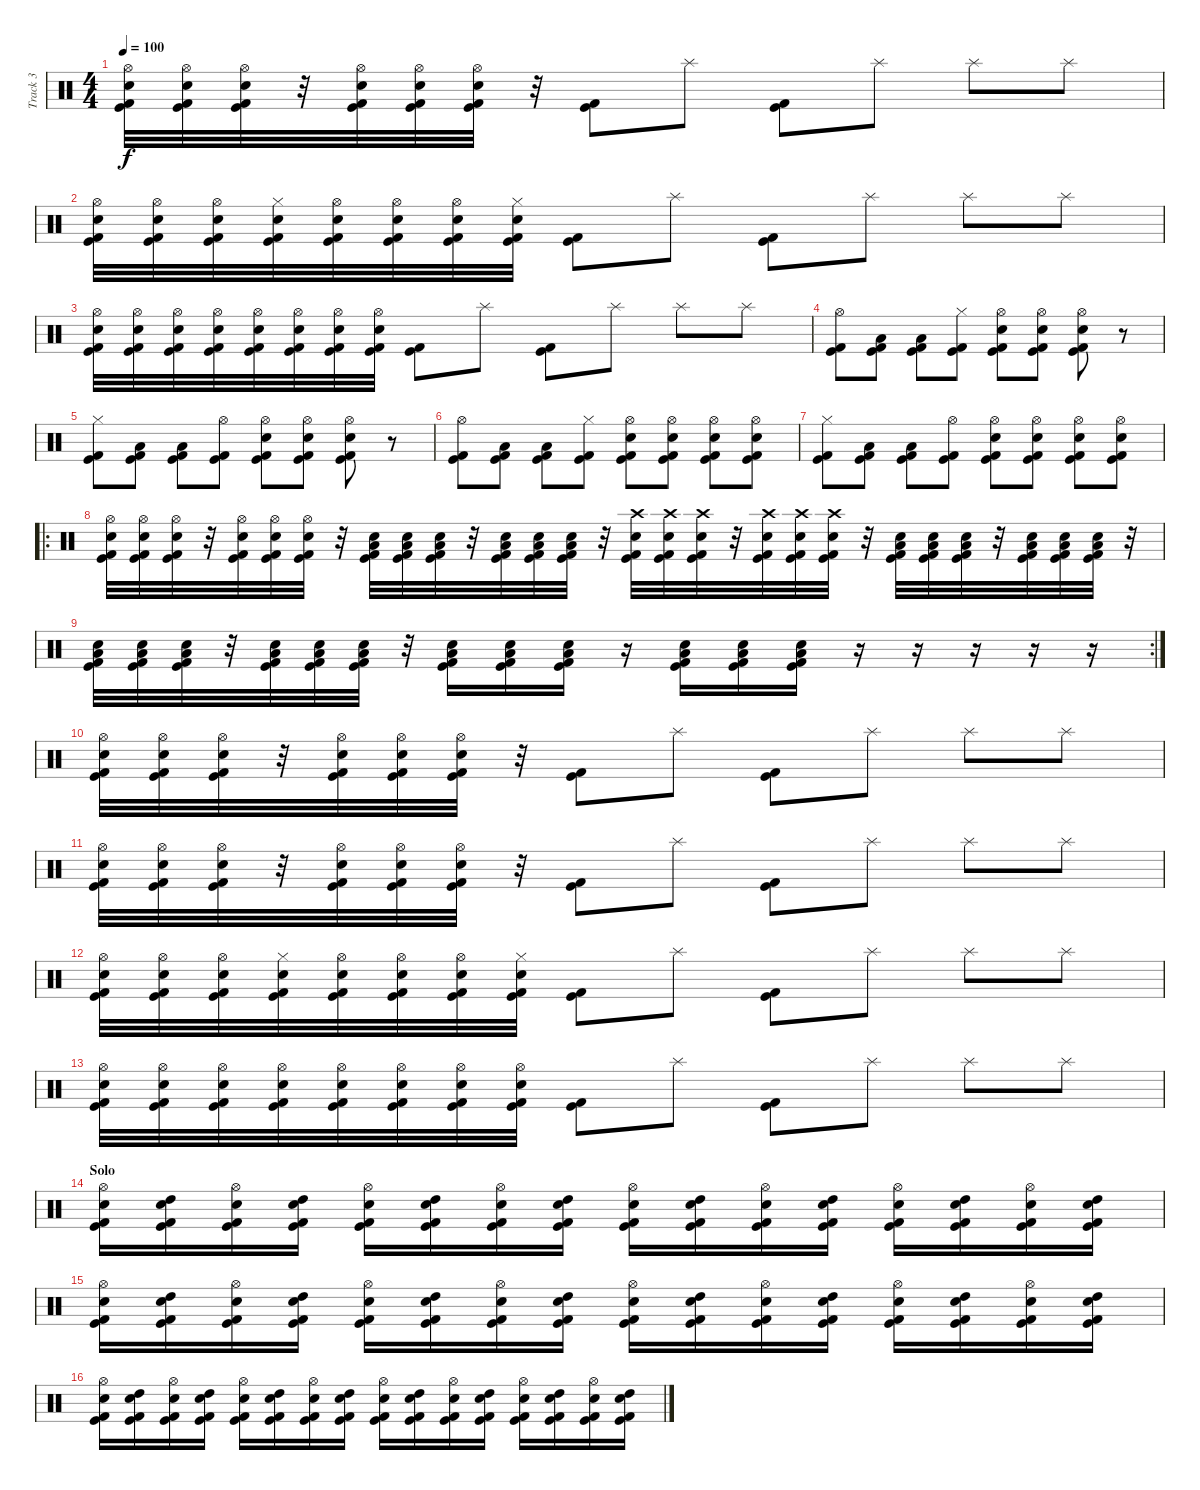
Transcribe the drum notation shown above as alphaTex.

\track ("Track 3" "Track 3") {instrument percussion}
\staff {score}
\articulation defaults
\ts (4 4)
\tempo 100
\clef neutral
\ks c
("Hi-Hat (open)" "Snare (hit) 2" "Kick (hit) 2" "Kick (hit)").32{dy f} ("Hi-Hat (open)" "Snare (hit) 2" "Kick (hit) 2" "Kick (hit)").32 ("Hi-Hat (open)" "Snare (hit) 2" "Kick (hit) 2" "Kick (hit)").32 r.32 ("Hi-Hat (open)" "Snare (hit) 2" "Kick (hit) 2" "Kick (hit)").32 ("Hi-Hat (open)" "Snare (hit) 2" "Kick (hit) 2" "Kick (hit)").32 ("Hi-Hat (open)" "Snare (hit) 2" "Kick (hit) 2" "Kick (hit)").32 r.32 ("Kick (hit) 2" "Kick (hit)").8 "Splash (hit)".8 ("Kick (hit) 2" "Kick (hit)").8 "Splash (hit)".8 "Splash (hit)".8 "Splash (hit)".8 |
("Hi-Hat (open)" "Snare (hit) 2" "Kick (hit) 2" "Kick (hit)").32 ("Hi-Hat (open)" "Snare (hit) 2" "Kick (hit) 2" "Kick (hit)").32 ("Hi-Hat (open)" "Snare (hit) 2" "Kick (hit) 2" "Kick (hit)").32 ("Hi-Hat (closed)" "Snare (hit) 2" "Kick (hit) 2" "Kick (hit)").32 ("Hi-Hat (open)" "Snare (hit) 2" "Kick (hit) 2" "Kick (hit)").32 ("Hi-Hat (open)" "Snare (hit) 2" "Kick (hit) 2" "Kick (hit)").32 ("Hi-Hat (open)" "Snare (hit) 2" "Kick (hit) 2" "Kick (hit)").32 ("Hi-Hat (closed)" "Snare (hit) 2" "Kick (hit) 2" "Kick (hit)").32 ("Kick (hit) 2" "Kick (hit)").8 "Splash (hit)".8 ("Kick (hit) 2" "Kick (hit)").8 "Splash (hit)".8 "Splash (hit)".8 "Splash (hit)".8 |
("Hi-Hat (open)" "Snare (hit) 2" "Kick (hit) 2" "Kick (hit)").32 ("Hi-Hat (open)" "Snare (hit) 2" "Kick (hit) 2" "Kick (hit)").32 ("Hi-Hat (open)" "Snare (hit) 2" "Kick (hit) 2" "Kick (hit)").32 ("Hi-Hat (open)" "Snare (hit) 2" "Kick (hit) 2" "Kick (hit)").32 ("Hi-Hat (open)" "Snare (hit) 2" "Kick (hit) 2" "Kick (hit)").32 ("Hi-Hat (open)" "Snare (hit) 2" "Kick (hit) 2" "Kick (hit)").32 ("Hi-Hat (open)" "Snare (hit) 2" "Kick (hit) 2" "Kick (hit)").32 ("Hi-Hat (open)" "Snare (hit) 2" "Kick (hit) 2" "Kick (hit)").32 ("Kick (hit) 2" "Kick (hit)").8 "Splash (hit)".8 ("Kick (hit) 2" "Kick (hit)").8 "Splash (hit)".8 "Splash (hit)".8 "Splash (hit)".8 |
("Hi-Hat (open)" "Kick (hit) 2" "Kick (hit)").8 ("Low Tom (hit)" "Kick (hit) 2" "Kick (hit)").8 ("Low Tom (hit)" "Kick (hit) 2" "Kick (hit)").8 ("Hi-Hat (closed)" "Kick (hit) 2" "Kick (hit)").8 ("Hi-Hat (open)" "Snare (hit) 2" "Kick (hit) 2" "Kick (hit)").8 ("Hi-Hat (open)" "Snare (hit) 2" "Kick (hit) 2" "Kick (hit)").8 ("Hi-Hat (open)" "Snare (hit) 2" "Kick (hit) 2" "Kick (hit)").8 r.8 |
("Hi-Hat (closed)" "Kick (hit) 2" "Kick (hit)").8 ("Low Tom (hit)" "Kick (hit) 2" "Kick (hit)").8 ("Low Tom (hit)" "Kick (hit) 2" "Kick (hit)").8 ("Hi-Hat (open)" "Kick (hit) 2" "Kick (hit)").8 ("Hi-Hat (open)" "Snare (hit) 2" "Kick (hit) 2" "Kick (hit)").8 ("Hi-Hat (open)" "Snare (hit) 2" "Kick (hit) 2" "Kick (hit)").8 ("Hi-Hat (open)" "Snare (hit) 2" "Kick (hit) 2" "Kick (hit)").8 r.8 |
("Hi-Hat (open)" "Kick (hit) 2" "Kick (hit)").8 ("Low Tom (hit)" "Kick (hit) 2" "Kick (hit)").8 ("Low Tom (hit)" "Kick (hit) 2" "Kick (hit)").8 ("Hi-Hat (closed)" "Kick (hit) 2" "Kick (hit)").8 ("Hi-Hat (open)" "Snare (hit) 2" "Kick (hit) 2" "Kick (hit)").8 ("Hi-Hat (open)" "Snare (hit) 2" "Kick (hit) 2" "Kick (hit)").8 ("Hi-Hat (open)" "Snare (hit) 2" "Kick (hit) 2" "Kick (hit)").8 ("Hi-Hat (open)" "Snare (hit) 2" "Kick (hit) 2" "Kick (hit)").8 |
("Hi-Hat (closed)" "Kick (hit) 2" "Kick (hit)").8 ("Low Tom (hit)" "Kick (hit) 2" "Kick (hit)").8 ("Low Tom (hit)" "Kick (hit) 2" "Kick (hit)").8 ("Hi-Hat (open)" "Kick (hit) 2" "Kick (hit)").8 ("Hi-Hat (open)" "Snare (hit) 2" "Kick (hit) 2" "Kick (hit)").8 ("Hi-Hat (open)" "Snare (hit) 2" "Kick (hit) 2" "Kick (hit)").8 ("Hi-Hat (open)" "Snare (hit) 2" "Kick (hit) 2" "Kick (hit)").8 ("Hi-Hat (open)" "Snare (hit) 2" "Kick (hit) 2" "Kick (hit)").8 |
\ro
("Hi-Hat (open)" "Snare (hit) 2" "Kick (hit) 2" "Kick (hit)").32 ("Hi-Hat (open)" "Snare (hit) 2" "Kick (hit) 2" "Kick (hit)").32 ("Hi-Hat (open)" "Snare (hit) 2" "Kick (hit) 2" "Kick (hit)").32 r.32 ("Hi-Hat (open)" "Snare (hit) 2" "Kick (hit) 2" "Kick (hit)").32 ("Hi-Hat (open)" "Snare (hit) 2" "Kick (hit) 2" "Kick (hit)").32 ("Hi-Hat (open)" "Snare (hit) 2" "Kick (hit) 2" "Kick (hit)").32 r.32 ("Low Tom (hit)" "Snare (hit) 2" "Kick (hit) 2" "Kick (hit)").32 ("Low Tom (hit)" "Snare (hit) 2" "Kick (hit) 2" "Kick (hit)").32 ("Low Tom (hit)" "Snare (hit) 2" "Kick (hit) 2" "Kick (hit)").32 r.32 ("Low Tom (hit)" "Snare (hit) 2" "Kick (hit) 2" "Kick (hit)").32 ("Low Tom (hit)" "Snare (hit) 2" "Kick (hit) 2" "Kick (hit)").32 ("Low Tom (hit)" "Snare (hit) 2" "Kick (hit) 2" "Kick (hit)").32 r.32 ("Crash high (hit)" "Snare (hit) 2" "Kick (hit) 2" "Kick (hit)").32 ("Crash high (hit)" "Snare (hit) 2" "Kick (hit) 2" "Kick (hit)").32 ("Crash high (hit)" "Snare (hit) 2" "Kick (hit) 2" "Kick (hit)").32 r.32 ("Crash high (hit)" "Snare (hit) 2" "Kick (hit) 2" "Kick (hit)").32 ("Crash high (hit)" "Snare (hit) 2" "Kick (hit) 2" "Kick (hit)").32 ("Crash high (hit)" "Snare (hit) 2" "Kick (hit) 2" "Kick (hit)").32 r.32 ("Low Tom (hit)" "Snare (hit) 2" "Kick (hit) 2" "Kick (hit)").32 ("Low Tom (hit)" "Snare (hit) 2" "Kick (hit) 2" "Kick (hit)").32 ("Low Tom (hit)" "Snare (hit) 2" "Kick (hit) 2" "Kick (hit)").32 r.32 ("Low Tom (hit)" "Snare (hit) 2" "Kick (hit) 2" "Kick (hit)").32 ("Low Tom (hit)" "Snare (hit) 2" "Kick (hit) 2" "Kick (hit)").32 ("Low Tom (hit)" "Snare (hit) 2" "Kick (hit) 2" "Kick (hit)").32 r.32 |
\rc 2
("Low Tom (hit)" "Snare (hit) 2" "Kick (hit) 2" "Kick (hit)").32 ("Low Tom (hit)" "Snare (hit) 2" "Kick (hit) 2" "Kick (hit)").32 ("Low Tom (hit)" "Snare (hit) 2" "Kick (hit) 2" "Kick (hit)").32 r.32 ("Low Tom (hit)" "Snare (hit) 2" "Kick (hit) 2" "Kick (hit)").32 ("Low Tom (hit)" "Snare (hit) 2" "Kick (hit) 2" "Kick (hit)").32 ("Low Tom (hit)" "Snare (hit) 2" "Kick (hit) 2" "Kick (hit)").32 r.32 ("Low Tom (hit)" "Snare (hit) 2" "Kick (hit) 2" "Kick (hit)").16 ("Low Tom (hit)" "Snare (hit) 2" "Kick (hit) 2" "Kick (hit)").16 ("Low Tom (hit)" "Snare (hit) 2" "Kick (hit) 2" "Kick (hit)").16 r.16 ("Low Tom (hit)" "Snare (hit) 2" "Kick (hit) 2" "Kick (hit)").16 ("Low Tom (hit)" "Snare (hit) 2" "Kick (hit) 2" "Kick (hit)").16 ("Low Tom (hit)" "Snare (hit) 2" "Kick (hit) 2" "Kick (hit)").16 r.16 r.16 r.16 r.16 r.16 |
("Hi-Hat (open)" "Snare (hit) 2" "Kick (hit) 2" "Kick (hit)").32 ("Hi-Hat (open)" "Snare (hit) 2" "Kick (hit) 2" "Kick (hit)").32 ("Hi-Hat (open)" "Snare (hit) 2" "Kick (hit) 2" "Kick (hit)").32 r.32 ("Hi-Hat (open)" "Snare (hit) 2" "Kick (hit) 2" "Kick (hit)").32 ("Hi-Hat (open)" "Snare (hit) 2" "Kick (hit) 2" "Kick (hit)").32 ("Hi-Hat (open)" "Snare (hit) 2" "Kick (hit) 2" "Kick (hit)").32 r.32 ("Kick (hit) 2" "Kick (hit)").8 "Splash (hit)".8 ("Kick (hit) 2" "Kick (hit)").8 "Splash (hit)".8 "Splash (hit)".8 "Splash (hit)".8 |
("Hi-Hat (open)" "Snare (hit) 2" "Kick (hit) 2" "Kick (hit)").32 ("Hi-Hat (open)" "Snare (hit) 2" "Kick (hit) 2" "Kick (hit)").32 ("Hi-Hat (open)" "Snare (hit) 2" "Kick (hit) 2" "Kick (hit)").32 r.32 ("Hi-Hat (open)" "Snare (hit) 2" "Kick (hit) 2" "Kick (hit)").32 ("Hi-Hat (open)" "Snare (hit) 2" "Kick (hit) 2" "Kick (hit)").32 ("Hi-Hat (open)" "Snare (hit) 2" "Kick (hit) 2" "Kick (hit)").32 r.32 ("Kick (hit) 2" "Kick (hit)").8 "Splash (hit)".8 ("Kick (hit) 2" "Kick (hit)").8 "Splash (hit)".8 "Splash (hit)".8 "Splash (hit)".8 |
("Hi-Hat (open)" "Snare (hit) 2" "Kick (hit) 2" "Kick (hit)").32 ("Hi-Hat (open)" "Snare (hit) 2" "Kick (hit) 2" "Kick (hit)").32 ("Hi-Hat (open)" "Snare (hit) 2" "Kick (hit) 2" "Kick (hit)").32 ("Hi-Hat (closed)" "Snare (hit) 2" "Kick (hit) 2" "Kick (hit)").32 ("Hi-Hat (open)" "Snare (hit) 2" "Kick (hit) 2" "Kick (hit)").32 ("Hi-Hat (open)" "Snare (hit) 2" "Kick (hit) 2" "Kick (hit)").32 ("Hi-Hat (open)" "Snare (hit) 2" "Kick (hit) 2" "Kick (hit)").32 ("Hi-Hat (closed)" "Snare (hit) 2" "Kick (hit) 2" "Kick (hit)").32 ("Kick (hit) 2" "Kick (hit)").8 "Splash (hit)".8 ("Kick (hit) 2" "Kick (hit)").8 "Splash (hit)".8 "Splash (hit)".8 "Splash (hit)".8 |
("Hi-Hat (open)" "Snare (hit) 2" "Kick (hit) 2" "Kick (hit)").32 ("Hi-Hat (open)" "Snare (hit) 2" "Kick (hit) 2" "Kick (hit)").32 ("Hi-Hat (open)" "Snare (hit) 2" "Kick (hit) 2" "Kick (hit)").32 ("Hi-Hat (open)" "Snare (hit) 2" "Kick (hit) 2" "Kick (hit)").32 ("Hi-Hat (open)" "Snare (hit) 2" "Kick (hit) 2" "Kick (hit)").32 ("Hi-Hat (open)" "Snare (hit) 2" "Kick (hit) 2" "Kick (hit)").32 ("Hi-Hat (open)" "Snare (hit) 2" "Kick (hit) 2" "Kick (hit)").32 ("Hi-Hat (open)" "Snare (hit) 2" "Kick (hit) 2" "Kick (hit)").32 ("Kick (hit) 2" "Kick (hit)").8 "Splash (hit)".8 ("Kick (hit) 2" "Kick (hit)").8 "Splash (hit)".8 "Splash (hit)".8 "Splash (hit)".8 |
\section ("" "Solo")
("Hi-Hat (open)" "Snare (hit) 2" "Kick (hit) 2" "Kick (hit)").16 ("High Tom (hit)" "Snare (hit) 2" "Kick (hit) 2" "Kick (hit)").16 ("Hi-Hat (open)" "Snare (hit) 2" "Kick (hit) 2" "Kick (hit)").16 ("High Tom (hit)" "Snare (hit) 2" "Kick (hit) 2" "Kick (hit)").16 ("Hi-Hat (open)" "Snare (hit) 2" "Kick (hit) 2" "Kick (hit)").16 ("High Tom (hit)" "Snare (hit) 2" "Kick (hit) 2" "Kick (hit)").16 ("Hi-Hat (open)" "Snare (hit) 2" "Kick (hit) 2" "Kick (hit)").16 ("High Tom (hit)" "Snare (hit) 2" "Kick (hit) 2" "Kick (hit)").16 ("Hi-Hat (open)" "Snare (hit) 2" "Kick (hit) 2" "Kick (hit)").16 ("High Tom (hit)" "Snare (hit) 2" "Kick (hit) 2" "Kick (hit)").16 ("Hi-Hat (open)" "Snare (hit) 2" "Kick (hit) 2" "Kick (hit)").16 ("High Tom (hit)" "Snare (hit) 2" "Kick (hit) 2" "Kick (hit)").16 ("Hi-Hat (open)" "Snare (hit) 2" "Kick (hit) 2" "Kick (hit)").16 ("High Tom (hit)" "Snare (hit) 2" "Kick (hit) 2" "Kick (hit)").16 ("Hi-Hat (open)" "Snare (hit) 2" "Kick (hit) 2" "Kick (hit)").16 ("High Tom (hit)" "Snare (hit) 2" "Kick (hit) 2" "Kick (hit)").16 |
("Hi-Hat (open)" "Snare (hit) 2" "Kick (hit) 2" "Kick (hit)").16 ("High Tom (hit)" "Snare (hit) 2" "Kick (hit) 2" "Kick (hit)").16 ("Hi-Hat (open)" "Snare (hit) 2" "Kick (hit) 2" "Kick (hit)").16 ("High Tom (hit)" "Snare (hit) 2" "Kick (hit) 2" "Kick (hit)").16 ("Hi-Hat (open)" "Snare (hit) 2" "Kick (hit) 2" "Kick (hit)").16 ("High Tom (hit)" "Snare (hit) 2" "Kick (hit) 2" "Kick (hit)").16 ("Hi-Hat (open)" "Snare (hit) 2" "Kick (hit) 2" "Kick (hit)").16 ("High Tom (hit)" "Snare (hit) 2" "Kick (hit) 2" "Kick (hit)").16 ("Hi-Hat (open)" "Snare (hit) 2" "Kick (hit) 2" "Kick (hit)").16 ("High Tom (hit)" "Snare (hit) 2" "Kick (hit) 2" "Kick (hit)").16 ("Hi-Hat (open)" "Snare (hit) 2" "Kick (hit) 2" "Kick (hit)").16 ("High Tom (hit)" "Snare (hit) 2" "Kick (hit) 2" "Kick (hit)").16 ("Hi-Hat (open)" "Snare (hit) 2" "Kick (hit) 2" "Kick (hit)").16 ("High Tom (hit)" "Snare (hit) 2" "Kick (hit) 2" "Kick (hit)").16 ("Hi-Hat (open)" "Snare (hit) 2" "Kick (hit) 2" "Kick (hit)").16 ("High Tom (hit)" "Snare (hit) 2" "Kick (hit) 2" "Kick (hit)").16 |
("Hi-Hat (open)" "Snare (hit) 2" "Kick (hit) 2" "Kick (hit)").16 ("High Tom (hit)" "Snare (hit) 2" "Kick (hit) 2" "Kick (hit)").16 ("Hi-Hat (open)" "Snare (hit) 2" "Kick (hit) 2" "Kick (hit)").16 ("High Tom (hit)" "Snare (hit) 2" "Kick (hit) 2" "Kick (hit)").16 ("Hi-Hat (open)" "Snare (hit) 2" "Kick (hit) 2" "Kick (hit)").16 ("High Tom (hit)" "Snare (hit) 2" "Kick (hit) 2" "Kick (hit)").16 ("Hi-Hat (open)" "Snare (hit) 2" "Kick (hit) 2" "Kick (hit)").16 ("High Tom (hit)" "Snare (hit) 2" "Kick (hit) 2" "Kick (hit)").16 ("Hi-Hat (open)" "Snare (hit) 2" "Kick (hit) 2" "Kick (hit)").16 ("High Tom (hit)" "Snare (hit) 2" "Kick (hit) 2" "Kick (hit)").16 ("Hi-Hat (open)" "Snare (hit) 2" "Kick (hit) 2" "Kick (hit)").16 ("High Tom (hit)" "Snare (hit) 2" "Kick (hit) 2" "Kick (hit)").16 ("Hi-Hat (open)" "Snare (hit) 2" "Kick (hit) 2" "Kick (hit)").16 ("High Tom (hit)" "Snare (hit) 2" "Kick (hit) 2" "Kick (hit)").16 ("Hi-Hat (open)" "Snare (hit) 2" "Kick (hit) 2" "Kick (hit)").16 ("High Tom (hit)" "Snare (hit) 2" "Kick (hit) 2" "Kick (hit)").16
